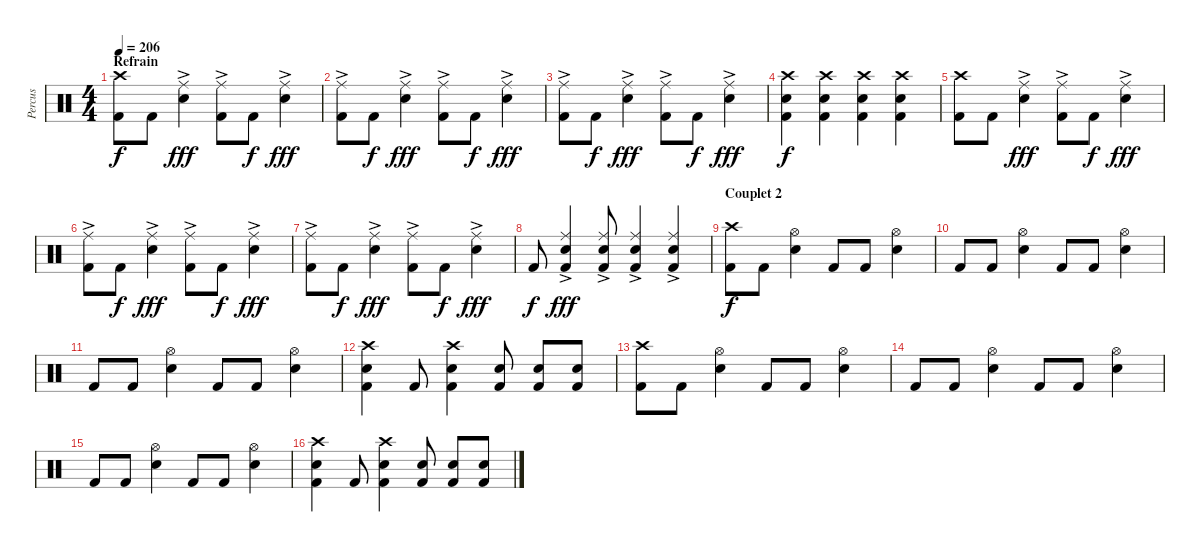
\track ("Percus" "Percus") {instrument percussion}
\staff {score}
\articulation defaults
\ts (4 4)
\section ("" "Refrain")
\tempo 206
\clef neutral
\ks c
("Crash high (hit)" "Kick (hit) 2").8{dy f} "Kick (hit) 2".8 ("Ride (middle)"{ac} "Snare (hit) 2").4{dy fff} ("Ride (middle)"{ac} "Kick (hit) 2").8 "Kick (hit) 2".8{dy f} ("Ride (middle)"{ac} "Snare (hit) 2").4{dy fff} |
("Ride (middle)"{ac} "Kick (hit) 2").8 "Kick (hit) 2".8{dy f} ("Ride (middle)"{ac} "Snare (hit) 2").4{dy fff} ("Ride (middle)"{ac} "Kick (hit) 2").8 "Kick (hit) 2".8{dy f} ("Ride (middle)"{ac} "Snare (hit) 2").4{dy fff} |
("Ride (middle)"{ac} "Kick (hit) 2").8 "Kick (hit) 2".8{dy f} ("Ride (middle)"{ac} "Snare (hit) 2").4{dy fff} ("Ride (middle)"{ac} "Kick (hit) 2").8 "Kick (hit) 2".8{dy f} ("Ride (middle)"{ac} "Snare (hit) 2").4{dy fff} |
("Crash high (hit)" "Snare (hit) 2" "Kick (hit) 2").4{dy f} ("Crash high (hit)" "Snare (hit) 2" "Kick (hit) 2").4 ("Crash high (hit)" "Snare (hit) 2" "Kick (hit) 2").4 ("Crash high (hit)" "Snare (hit) 2" "Kick (hit) 2").4 |
("Crash high (hit)" "Kick (hit) 2").8 "Kick (hit) 2".8 ("Ride (middle)"{ac} "Snare (hit) 2").4{dy fff} ("Ride (middle)"{ac} "Kick (hit) 2").8 "Kick (hit) 2".8{dy f} ("Ride (middle)"{ac} "Snare (hit) 2").4{dy fff} |
("Ride (middle)"{ac} "Kick (hit) 2").8 "Kick (hit) 2".8{dy f} ("Ride (middle)"{ac} "Snare (hit) 2").4{dy fff} ("Ride (middle)"{ac} "Kick (hit) 2").8 "Kick (hit) 2".8{dy f} ("Ride (middle)"{ac} "Snare (hit) 2").4{dy fff} |
("Ride (middle)"{ac} "Kick (hit) 2").8 "Kick (hit) 2".8{dy f} ("Ride (middle)"{ac} "Snare (hit) 2").4{dy fff} ("Ride (middle)"{ac} "Kick (hit) 2").8 "Kick (hit) 2".8{dy f} ("Ride (middle)"{ac} "Snare (hit) 2").4{dy fff} |
"Kick (hit) 2".8{dy f} ("Ride (middle)"{ac} "Snare (hit) 2" "Kick (hit) 2").4{dy fff} ("Ride (middle)"{ac} "Snare (hit) 2" "Kick (hit) 2").8 ("Ride (middle)"{ac} "Snare (hit) 2" "Kick (hit) 2").4 ("Ride (middle)"{ac} "Snare (hit) 2" "Kick (hit) 2").4 |
\section ("" "Couplet 2")
("Crash high (hit)" "Kick (hit) 2").8{dy f} "Kick (hit) 2".8 ("Hi-Hat (open)" "Snare (hit) 2").4 "Kick (hit) 2".8 "Kick (hit) 2".8 ("Hi-Hat (open)" "Snare (hit) 2").4 |
"Kick (hit) 2".8 "Kick (hit) 2".8 ("Hi-Hat (open)" "Snare (hit) 2").4 "Kick (hit) 2".8 "Kick (hit) 2".8 ("Hi-Hat (open)" "Snare (hit) 2").4 |
"Kick (hit) 2".8 "Kick (hit) 2".8 ("Hi-Hat (open)" "Snare (hit) 2").4 "Kick (hit) 2".8 "Kick (hit) 2".8 ("Hi-Hat (open)" "Snare (hit) 2").4 |
("Crash high (hit)" "Snare (hit) 2" "Kick (hit) 2").4 "Kick (hit) 2".8 ("Crash high (hit)" "Snare (hit) 2" "Kick (hit) 2").4 ("Snare (hit) 2" "Kick (hit) 2").8 ("Snare (hit) 2" "Kick (hit) 2").8 ("Snare (hit) 2" "Kick (hit) 2").8 |
("Crash high (hit)" "Kick (hit) 2").8 "Kick (hit) 2".8 ("Hi-Hat (open)" "Snare (hit) 2").4 "Kick (hit) 2".8 "Kick (hit) 2".8 ("Hi-Hat (open)" "Snare (hit) 2").4 |
"Kick (hit) 2".8 "Kick (hit) 2".8 ("Hi-Hat (open)" "Snare (hit) 2").4 "Kick (hit) 2".8 "Kick (hit) 2".8 ("Hi-Hat (open)" "Snare (hit) 2").4 |
"Kick (hit) 2".8 "Kick (hit) 2".8 ("Hi-Hat (open)" "Snare (hit) 2").4 "Kick (hit) 2".8 "Kick (hit) 2".8 ("Hi-Hat (open)" "Snare (hit) 2").4 |
("Crash high (hit)" "Snare (hit) 2" "Kick (hit) 2").4 "Kick (hit) 2".8 ("Crash high (hit)" "Snare (hit) 2" "Kick (hit) 2").4 ("Snare (hit) 2" "Kick (hit) 2").8 ("Snare (hit) 2" "Kick (hit) 2").8 ("Snare (hit) 2" "Kick (hit) 2").8
